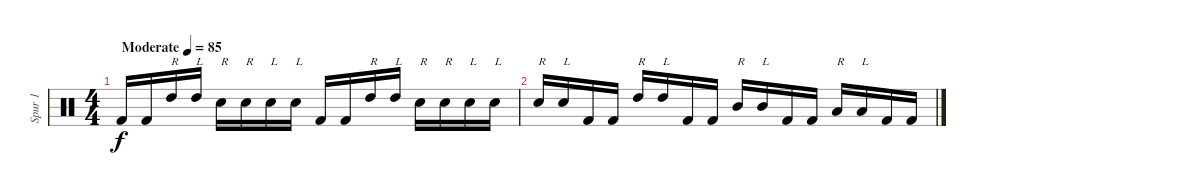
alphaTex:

\track ("Spur 1" "Spur 1") {instrument percussion}
\staff {score}
\articulation defaults
\ts (4 4)
\tempo (85 "Moderate")
\clef neutral
\ks c "Kick (hit) 2".16{dy f} "Kick (hit) 2".16 "High Tom (hit)".16{txt "R"} "High Tom (hit)".16{txt "L"} "Snare (hit) 2".16{txt "R"} "Snare (hit) 2".16{txt "R"} "Snare (hit) 2".16{txt "L"} "Snare (hit) 2".16{txt "L"} "Kick (hit) 2".16 "Kick (hit) 2".16 "High Tom (hit)".16{txt "R"} "High Tom (hit)".16{txt "L"} "Snare (hit) 2".16{txt "R"} "Snare (hit) 2".16{txt "R"} "Snare (hit) 2".16{txt "L"} "Snare (hit) 2".16{txt "L"}
|
"Snare (hit) 2".16{txt "R"} "Snare (hit) 2".16{txt "L"} "Kick (hit) 2".16 "Kick (hit) 2".16 "High Tom (hit)".16{txt "R"} "High Tom (hit)".16{txt "L"} "Kick (hit) 2".16 "Kick (hit) 2".16 "Mid Tom (hit)".16{txt "R"} "Mid Tom (hit)".16{txt "L"} "Kick (hit) 2".16 "Kick (hit) 2".16 "Low Floor Tom (hit)".16{txt "R"} "Low Floor Tom (hit)".16{txt "L"} "Kick (hit) 2".16 "Kick (hit) 2".16
